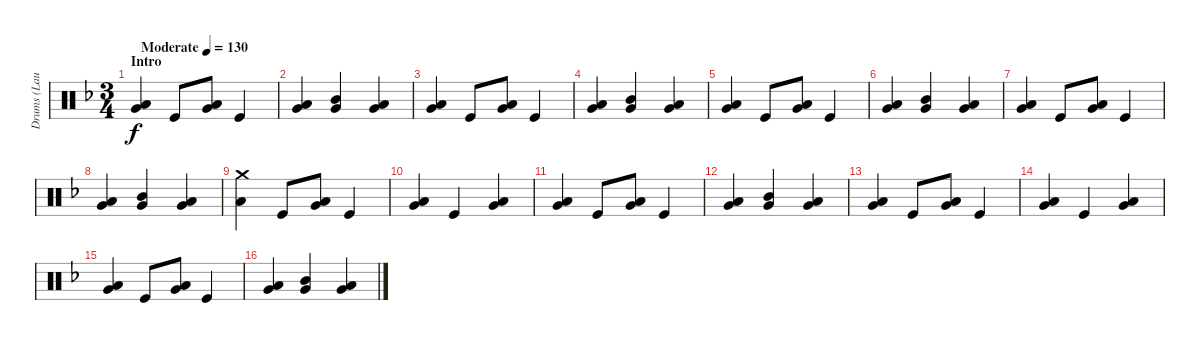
\track ("Drums (Laura)" "Drums (Lau") {instrument percussion}
\staff {score}
\articulation defaults
\ts (3 4)
\section ("" "Intro")
\tempo (130 "Moderate")
\clef neutral
\ks dminor
("Very Low Tom (hit)" "Low Floor Tom (hit)").4{dy f} "Kick (hit)".8 ("Very Low Tom (hit)" "Low Floor Tom (hit)").8 "Kick (hit)".4 |
("Very Low Tom (hit)" "Low Floor Tom (hit)").4 ("Mid Tom (hit)" "Very Low Tom (hit)").4 ("Low Tom (hit)" "Very Low Tom (hit)").4 |
("Very Low Tom (hit)" "Low Floor Tom (hit)").4 "Kick (hit)".8 ("Very Low Tom (hit)" "Low Floor Tom (hit)").8 "Kick (hit)".4 |
("Very Low Tom (hit)" "Low Floor Tom (hit)").4 ("Mid Tom (hit)" "Very Low Tom (hit)").4 ("Low Tom (hit)" "Very Low Tom (hit)").4 |
("Very Low Tom (hit)" "Low Floor Tom (hit)").4 "Kick (hit)".8 ("Very Low Tom (hit)" "Low Floor Tom (hit)").8 "Kick (hit)".4 |
("Very Low Tom (hit)" "Low Floor Tom (hit)").4 ("Mid Tom (hit)" "Very Low Tom (hit)").4 ("Low Tom (hit)" "Very Low Tom (hit)").4 |
("Very Low Tom (hit)" "Low Floor Tom (hit)").4 "Kick (hit)".8 ("Very Low Tom (hit)" "Low Floor Tom (hit)").8 "Kick (hit)".4 |
("Very Low Tom (hit)" "Low Floor Tom (hit)").4 ("Mid Tom (hit)" "Very Low Tom (hit)").4 ("Low Tom (hit)" "Very Low Tom (hit)").4 |
("Crash medium (hit)" "Low Floor Tom (hit)").4 "Kick (hit)".8 ("Very Low Tom (hit)" "Low Floor Tom (hit)").8 "Kick (hit)".4 |
("Very Low Tom (hit)" "Low Floor Tom (hit)").4 "Kick (hit)".4 ("Very Low Tom (hit)" "Low Floor Tom (hit)").4 |
("Very Low Tom (hit)" "Low Floor Tom (hit)").4 "Kick (hit)".8 ("Very Low Tom (hit)" "Low Floor Tom (hit)").8 "Kick (hit)".4 |
("Very Low Tom (hit)" "Low Floor Tom (hit)").4 ("Mid Tom (hit)" "Very Low Tom (hit)").4 ("Low Tom (hit)" "Very Low Tom (hit)").4 |
("Very Low Tom (hit)" "Low Floor Tom (hit)").4 "Kick (hit)".8 ("Very Low Tom (hit)" "Low Floor Tom (hit)").8 "Kick (hit)".4 |
("Very Low Tom (hit)" "Low Floor Tom (hit)").4 "Kick (hit)".4 ("Very Low Tom (hit)" "Low Floor Tom (hit)").4 |
("Very Low Tom (hit)" "Low Floor Tom (hit)").4 "Kick (hit)".8 ("Very Low Tom (hit)" "Low Floor Tom (hit)").8 "Kick (hit)".4 |
("Very Low Tom (hit)" "Low Floor Tom (hit)").4 ("Mid Tom (hit)" "Very Low Tom (hit)").4 ("Low Tom (hit)" "Very Low Tom (hit)").4
